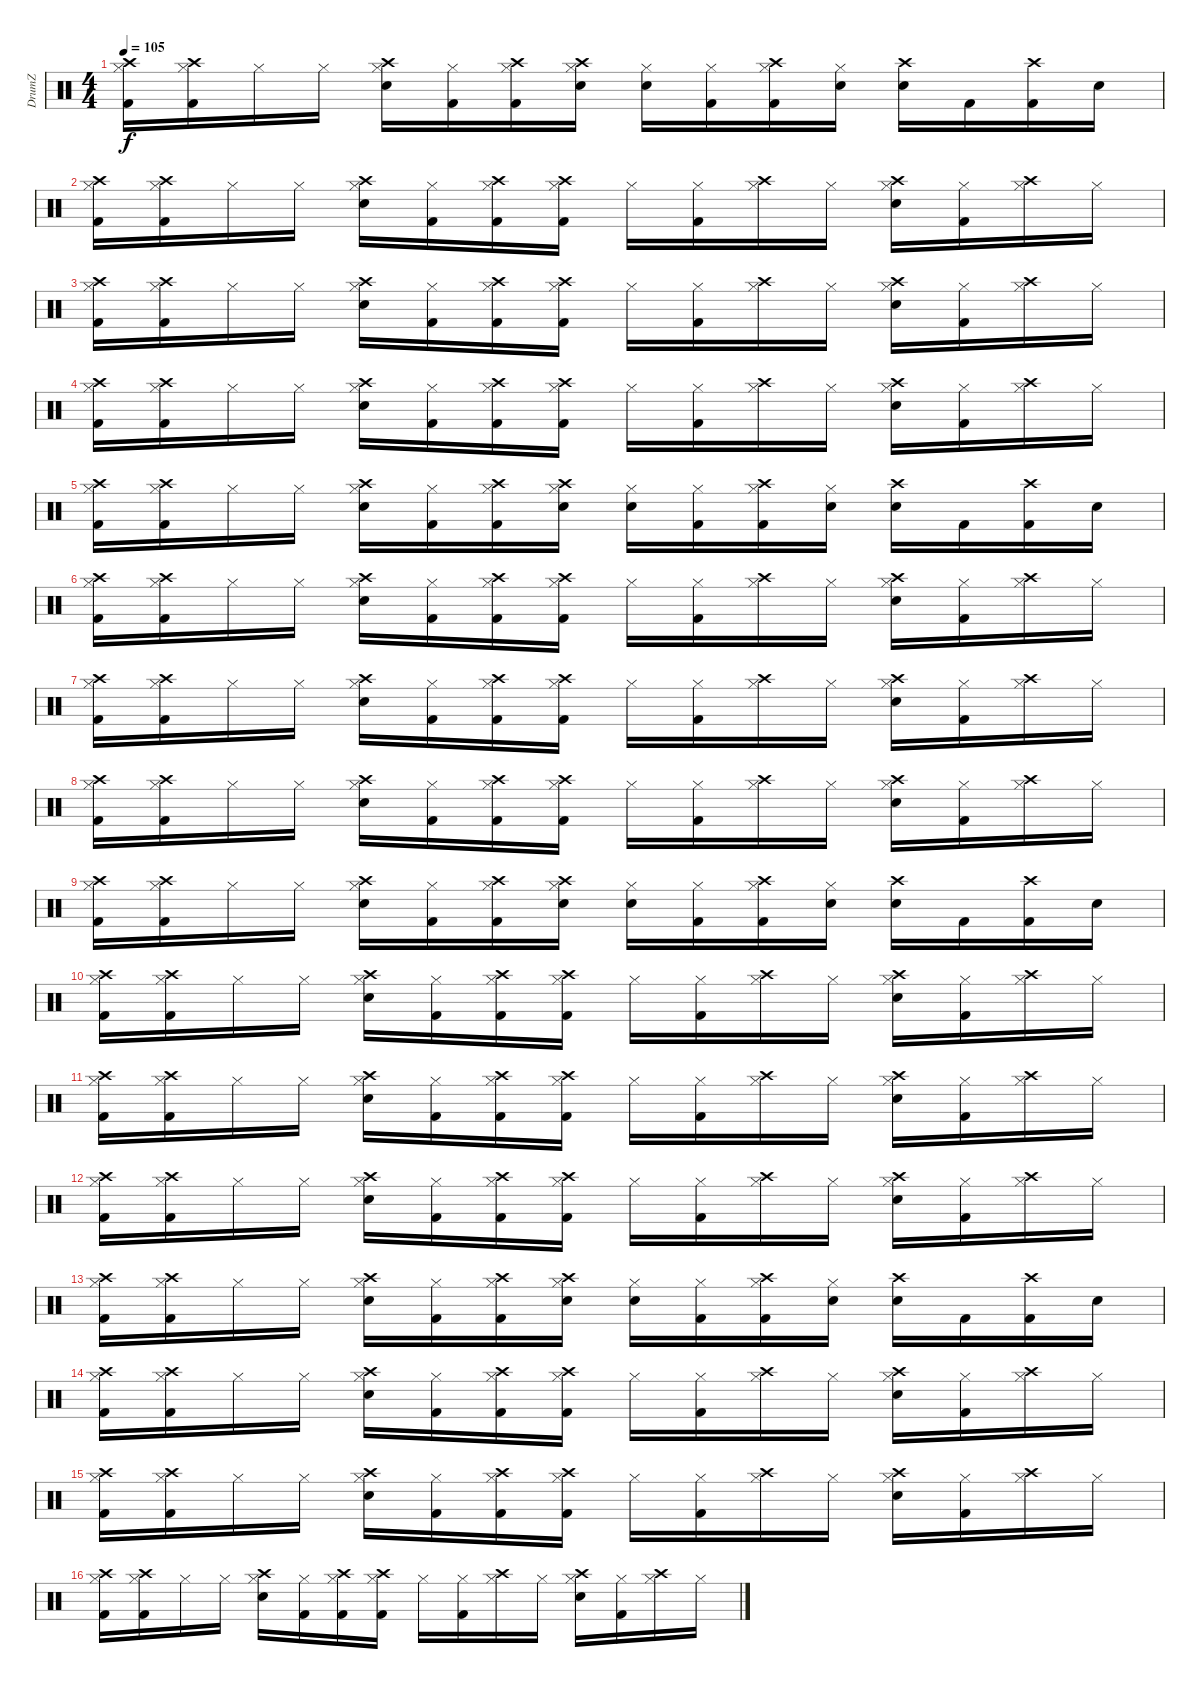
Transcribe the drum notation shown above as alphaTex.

\track ("DrumZ" "DrumZ") {instrument percussion}
\staff {score}
\articulation defaults
\ts (4 4)
\tempo 105
\clef neutral
\ks c
("Crash high (hit)" "Hi-Hat (closed)" "Kick (hit) 2").16{dy f} ("Crash high (hit)" "Hi-Hat (closed)" "Kick (hit) 2").16 "Hi-Hat (closed)".16 "Hi-Hat (closed)".16 ("Crash high (hit)" "Hi-Hat (closed)" "Electric Snare (hit)").16 ("Hi-Hat (closed)" "Kick (hit) 2").16 ("Crash high (hit)" "Hi-Hat (closed)" "Kick (hit) 2").16 ("Crash high (hit)" "Hi-Hat (closed)" "Electric Snare (hit)").16 ("Hi-Hat (closed)" "Electric Snare (hit)").16 ("Hi-Hat (closed)" "Kick (hit) 2").16 ("Crash high (hit)" "Hi-Hat (closed)" "Kick (hit) 2").16 ("Hi-Hat (closed)" "Electric Snare (hit)").16 ("Crash high (hit)" "Electric Snare (hit)").16 "Kick (hit) 2".16 ("Crash high (hit)" "Kick (hit) 2").16 "Electric Snare (hit)".16 |
("Crash high (hit)" "Hi-Hat (closed)" "Kick (hit) 2").16 ("Crash high (hit)" "Hi-Hat (closed)" "Kick (hit) 2").16 "Hi-Hat (closed)".16 "Hi-Hat (closed)".16 ("Crash high (hit)" "Hi-Hat (closed)" "Electric Snare (hit)").16 ("Hi-Hat (closed)" "Kick (hit) 2").16 ("Crash high (hit)" "Hi-Hat (closed)" "Kick (hit) 2").16 ("Crash high (hit)" "Hi-Hat (closed)" "Kick (hit) 2").16 "Hi-Hat (closed)".16 ("Hi-Hat (closed)" "Kick (hit) 2").16 ("Crash high (hit)" "Hi-Hat (closed)").16 "Hi-Hat (closed)".16 ("Crash high (hit)" "Hi-Hat (closed)" "Electric Snare (hit)").16 ("Hi-Hat (closed)" "Kick (hit) 2").16 ("Crash high (hit)" "Hi-Hat (closed)").16 "Hi-Hat (closed)".16 |
("Crash high (hit)" "Hi-Hat (closed)" "Kick (hit) 2").16 ("Crash high (hit)" "Hi-Hat (closed)" "Kick (hit) 2").16 "Hi-Hat (closed)".16 "Hi-Hat (closed)".16 ("Crash high (hit)" "Hi-Hat (closed)" "Electric Snare (hit)").16 ("Hi-Hat (closed)" "Kick (hit) 2").16 ("Crash high (hit)" "Hi-Hat (closed)" "Kick (hit) 2").16 ("Crash high (hit)" "Hi-Hat (closed)" "Kick (hit) 2").16 "Hi-Hat (closed)".16 ("Hi-Hat (closed)" "Kick (hit) 2").16 ("Crash high (hit)" "Hi-Hat (closed)").16 "Hi-Hat (closed)".16 ("Crash high (hit)" "Hi-Hat (closed)" "Electric Snare (hit)").16 ("Hi-Hat (closed)" "Kick (hit) 2").16 ("Crash high (hit)" "Hi-Hat (closed)").16 "Hi-Hat (closed)".16 |
("Crash high (hit)" "Hi-Hat (closed)" "Kick (hit) 2").16 ("Crash high (hit)" "Hi-Hat (closed)" "Kick (hit) 2").16 "Hi-Hat (closed)".16 "Hi-Hat (closed)".16 ("Crash high (hit)" "Hi-Hat (closed)" "Electric Snare (hit)").16 ("Hi-Hat (closed)" "Kick (hit) 2").16 ("Crash high (hit)" "Hi-Hat (closed)" "Kick (hit) 2").16 ("Crash high (hit)" "Hi-Hat (closed)" "Kick (hit) 2").16 "Hi-Hat (closed)".16 ("Hi-Hat (closed)" "Kick (hit) 2").16 ("Crash high (hit)" "Hi-Hat (closed)").16 "Hi-Hat (closed)".16 ("Crash high (hit)" "Hi-Hat (closed)" "Electric Snare (hit)").16 ("Hi-Hat (closed)" "Kick (hit) 2").16 ("Crash high (hit)" "Hi-Hat (closed)").16 "Hi-Hat (closed)".16 |
("Crash high (hit)" "Hi-Hat (closed)" "Kick (hit) 2").16 ("Crash high (hit)" "Hi-Hat (closed)" "Kick (hit) 2").16 "Hi-Hat (closed)".16 "Hi-Hat (closed)".16 ("Crash high (hit)" "Hi-Hat (closed)" "Electric Snare (hit)").16 ("Hi-Hat (closed)" "Kick (hit) 2").16 ("Crash high (hit)" "Hi-Hat (closed)" "Kick (hit) 2").16 ("Crash high (hit)" "Hi-Hat (closed)" "Electric Snare (hit)").16 ("Hi-Hat (closed)" "Electric Snare (hit)").16 ("Hi-Hat (closed)" "Kick (hit) 2").16 ("Crash high (hit)" "Hi-Hat (closed)" "Kick (hit) 2").16 ("Hi-Hat (closed)" "Electric Snare (hit)").16 ("Crash high (hit)" "Electric Snare (hit)").16 "Kick (hit) 2".16 ("Crash high (hit)" "Kick (hit) 2").16 "Electric Snare (hit)".16 |
("Crash high (hit)" "Hi-Hat (closed)" "Kick (hit) 2").16 ("Crash high (hit)" "Hi-Hat (closed)" "Kick (hit) 2").16 "Hi-Hat (closed)".16 "Hi-Hat (closed)".16 ("Crash high (hit)" "Hi-Hat (closed)" "Electric Snare (hit)").16 ("Hi-Hat (closed)" "Kick (hit) 2").16 ("Crash high (hit)" "Hi-Hat (closed)" "Kick (hit) 2").16 ("Crash high (hit)" "Hi-Hat (closed)" "Kick (hit) 2").16 "Hi-Hat (closed)".16 ("Hi-Hat (closed)" "Kick (hit) 2").16 ("Crash high (hit)" "Hi-Hat (closed)").16 "Hi-Hat (closed)".16 ("Crash high (hit)" "Hi-Hat (closed)" "Electric Snare (hit)").16 ("Hi-Hat (closed)" "Kick (hit) 2").16 ("Crash high (hit)" "Hi-Hat (closed)").16 "Hi-Hat (closed)".16 |
("Crash high (hit)" "Hi-Hat (closed)" "Kick (hit) 2").16 ("Crash high (hit)" "Hi-Hat (closed)" "Kick (hit) 2").16 "Hi-Hat (closed)".16 "Hi-Hat (closed)".16 ("Crash high (hit)" "Hi-Hat (closed)" "Electric Snare (hit)").16 ("Hi-Hat (closed)" "Kick (hit) 2").16 ("Crash high (hit)" "Hi-Hat (closed)" "Kick (hit) 2").16 ("Crash high (hit)" "Hi-Hat (closed)" "Kick (hit) 2").16 "Hi-Hat (closed)".16 ("Hi-Hat (closed)" "Kick (hit) 2").16 ("Crash high (hit)" "Hi-Hat (closed)").16 "Hi-Hat (closed)".16 ("Crash high (hit)" "Hi-Hat (closed)" "Electric Snare (hit)").16 ("Hi-Hat (closed)" "Kick (hit) 2").16 ("Crash high (hit)" "Hi-Hat (closed)").16 "Hi-Hat (closed)".16 |
("Crash high (hit)" "Hi-Hat (closed)" "Kick (hit) 2").16 ("Crash high (hit)" "Hi-Hat (closed)" "Kick (hit) 2").16 "Hi-Hat (closed)".16 "Hi-Hat (closed)".16 ("Crash high (hit)" "Hi-Hat (closed)" "Electric Snare (hit)").16 ("Hi-Hat (closed)" "Kick (hit) 2").16 ("Crash high (hit)" "Hi-Hat (closed)" "Kick (hit) 2").16 ("Crash high (hit)" "Hi-Hat (closed)" "Kick (hit) 2").16 "Hi-Hat (closed)".16 ("Hi-Hat (closed)" "Kick (hit) 2").16 ("Crash high (hit)" "Hi-Hat (closed)").16 "Hi-Hat (closed)".16 ("Crash high (hit)" "Hi-Hat (closed)" "Electric Snare (hit)").16 ("Hi-Hat (closed)" "Kick (hit) 2").16 ("Crash high (hit)" "Hi-Hat (closed)").16 "Hi-Hat (closed)".16 |
("Crash high (hit)" "Hi-Hat (closed)" "Kick (hit) 2").16 ("Crash high (hit)" "Hi-Hat (closed)" "Kick (hit) 2").16 "Hi-Hat (closed)".16 "Hi-Hat (closed)".16 ("Crash high (hit)" "Hi-Hat (closed)" "Electric Snare (hit)").16 ("Hi-Hat (closed)" "Kick (hit) 2").16 ("Crash high (hit)" "Hi-Hat (closed)" "Kick (hit) 2").16 ("Crash high (hit)" "Hi-Hat (closed)" "Electric Snare (hit)").16 ("Hi-Hat (closed)" "Electric Snare (hit)").16 ("Hi-Hat (closed)" "Kick (hit) 2").16 ("Crash high (hit)" "Hi-Hat (closed)" "Kick (hit) 2").16 ("Hi-Hat (closed)" "Electric Snare (hit)").16 ("Crash high (hit)" "Electric Snare (hit)").16 "Kick (hit) 2".16 ("Crash high (hit)" "Kick (hit) 2").16 "Electric Snare (hit)".16 |
("Crash high (hit)" "Hi-Hat (closed)" "Kick (hit) 2").16 ("Crash high (hit)" "Hi-Hat (closed)" "Kick (hit) 2").16 "Hi-Hat (closed)".16 "Hi-Hat (closed)".16 ("Crash high (hit)" "Hi-Hat (closed)" "Electric Snare (hit)").16 ("Hi-Hat (closed)" "Kick (hit) 2").16 ("Crash high (hit)" "Hi-Hat (closed)" "Kick (hit) 2").16 ("Crash high (hit)" "Hi-Hat (closed)" "Kick (hit) 2").16 "Hi-Hat (closed)".16 ("Hi-Hat (closed)" "Kick (hit) 2").16 ("Crash high (hit)" "Hi-Hat (closed)").16 "Hi-Hat (closed)".16 ("Crash high (hit)" "Hi-Hat (closed)" "Electric Snare (hit)").16 ("Hi-Hat (closed)" "Kick (hit) 2").16 ("Crash high (hit)" "Hi-Hat (closed)").16 "Hi-Hat (closed)".16 |
("Crash high (hit)" "Hi-Hat (closed)" "Kick (hit) 2").16 ("Crash high (hit)" "Hi-Hat (closed)" "Kick (hit) 2").16 "Hi-Hat (closed)".16 "Hi-Hat (closed)".16 ("Crash high (hit)" "Hi-Hat (closed)" "Electric Snare (hit)").16 ("Hi-Hat (closed)" "Kick (hit) 2").16 ("Crash high (hit)" "Hi-Hat (closed)" "Kick (hit) 2").16 ("Crash high (hit)" "Hi-Hat (closed)" "Kick (hit) 2").16 "Hi-Hat (closed)".16 ("Hi-Hat (closed)" "Kick (hit) 2").16 ("Crash high (hit)" "Hi-Hat (closed)").16 "Hi-Hat (closed)".16 ("Crash high (hit)" "Hi-Hat (closed)" "Electric Snare (hit)").16 ("Hi-Hat (closed)" "Kick (hit) 2").16 ("Crash high (hit)" "Hi-Hat (closed)").16 "Hi-Hat (closed)".16 |
("Crash high (hit)" "Hi-Hat (closed)" "Kick (hit) 2").16 ("Crash high (hit)" "Hi-Hat (closed)" "Kick (hit) 2").16 "Hi-Hat (closed)".16 "Hi-Hat (closed)".16 ("Crash high (hit)" "Hi-Hat (closed)" "Electric Snare (hit)").16 ("Hi-Hat (closed)" "Kick (hit) 2").16 ("Crash high (hit)" "Hi-Hat (closed)" "Kick (hit) 2").16 ("Crash high (hit)" "Hi-Hat (closed)" "Kick (hit) 2").16 "Hi-Hat (closed)".16 ("Hi-Hat (closed)" "Kick (hit) 2").16 ("Crash high (hit)" "Hi-Hat (closed)").16 "Hi-Hat (closed)".16 ("Crash high (hit)" "Hi-Hat (closed)" "Electric Snare (hit)").16 ("Hi-Hat (closed)" "Kick (hit) 2").16 ("Crash high (hit)" "Hi-Hat (closed)").16 "Hi-Hat (closed)".16 |
("Crash high (hit)" "Hi-Hat (closed)" "Kick (hit) 2").16 ("Crash high (hit)" "Hi-Hat (closed)" "Kick (hit) 2").16 "Hi-Hat (closed)".16 "Hi-Hat (closed)".16 ("Crash high (hit)" "Hi-Hat (closed)" "Electric Snare (hit)").16 ("Hi-Hat (closed)" "Kick (hit) 2").16 ("Crash high (hit)" "Hi-Hat (closed)" "Kick (hit) 2").16 ("Crash high (hit)" "Hi-Hat (closed)" "Electric Snare (hit)").16 ("Hi-Hat (closed)" "Electric Snare (hit)").16 ("Hi-Hat (closed)" "Kick (hit) 2").16 ("Crash high (hit)" "Hi-Hat (closed)" "Kick (hit) 2").16 ("Hi-Hat (closed)" "Electric Snare (hit)").16 ("Crash high (hit)" "Electric Snare (hit)").16 "Kick (hit) 2".16 ("Crash high (hit)" "Kick (hit) 2").16 "Electric Snare (hit)".16 |
("Crash high (hit)" "Hi-Hat (closed)" "Kick (hit) 2").16 ("Crash high (hit)" "Hi-Hat (closed)" "Kick (hit) 2").16 "Hi-Hat (closed)".16 "Hi-Hat (closed)".16 ("Crash high (hit)" "Hi-Hat (closed)" "Electric Snare (hit)").16 ("Hi-Hat (closed)" "Kick (hit) 2").16 ("Crash high (hit)" "Hi-Hat (closed)" "Kick (hit) 2").16 ("Crash high (hit)" "Hi-Hat (closed)" "Kick (hit) 2").16 "Hi-Hat (closed)".16 ("Hi-Hat (closed)" "Kick (hit) 2").16 ("Crash high (hit)" "Hi-Hat (closed)").16 "Hi-Hat (closed)".16 ("Crash high (hit)" "Hi-Hat (closed)" "Electric Snare (hit)").16 ("Hi-Hat (closed)" "Kick (hit) 2").16 ("Crash high (hit)" "Hi-Hat (closed)").16 "Hi-Hat (closed)".16 |
("Crash high (hit)" "Hi-Hat (closed)" "Kick (hit) 2").16 ("Crash high (hit)" "Hi-Hat (closed)" "Kick (hit) 2").16 "Hi-Hat (closed)".16 "Hi-Hat (closed)".16 ("Crash high (hit)" "Hi-Hat (closed)" "Electric Snare (hit)").16 ("Hi-Hat (closed)" "Kick (hit) 2").16 ("Crash high (hit)" "Hi-Hat (closed)" "Kick (hit) 2").16 ("Crash high (hit)" "Hi-Hat (closed)" "Kick (hit) 2").16 "Hi-Hat (closed)".16 ("Hi-Hat (closed)" "Kick (hit) 2").16 ("Crash high (hit)" "Hi-Hat (closed)").16 "Hi-Hat (closed)".16 ("Crash high (hit)" "Hi-Hat (closed)" "Electric Snare (hit)").16 ("Hi-Hat (closed)" "Kick (hit) 2").16 ("Crash high (hit)" "Hi-Hat (closed)").16 "Hi-Hat (closed)".16 |
("Crash high (hit)" "Hi-Hat (closed)" "Kick (hit) 2").16 ("Crash high (hit)" "Hi-Hat (closed)" "Kick (hit) 2").16 "Hi-Hat (closed)".16 "Hi-Hat (closed)".16 ("Crash high (hit)" "Hi-Hat (closed)" "Electric Snare (hit)").16 ("Hi-Hat (closed)" "Kick (hit) 2").16 ("Crash high (hit)" "Hi-Hat (closed)" "Kick (hit) 2").16 ("Crash high (hit)" "Hi-Hat (closed)" "Kick (hit) 2").16 "Hi-Hat (closed)".16 ("Hi-Hat (closed)" "Kick (hit) 2").16 ("Crash high (hit)" "Hi-Hat (closed)").16 "Hi-Hat (closed)".16 ("Crash high (hit)" "Hi-Hat (closed)" "Electric Snare (hit)").16 ("Hi-Hat (closed)" "Kick (hit) 2").16 ("Crash high (hit)" "Hi-Hat (closed)").16 "Hi-Hat (closed)".16
